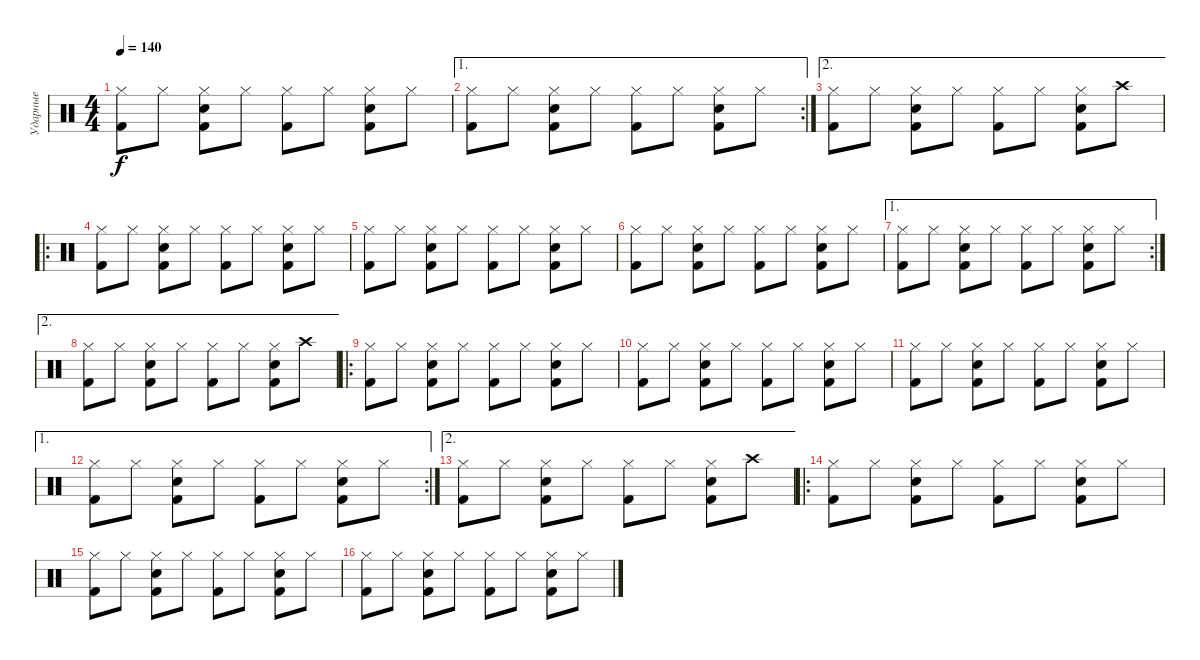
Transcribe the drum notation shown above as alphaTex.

\track ("Ударные" "Ударные") {instrument percussion}
\staff {score}
\articulation defaults
\ts (4 4)
\tempo 140
\clef neutral
\ks c
("Hi-Hat (closed)" "Kick (hit) 2").8{dy f} "Hi-Hat (closed)".8 ("Hi-Hat (closed)" "Kick (hit) 2" "Snare (hit) 2").8 "Hi-Hat (closed)".8 ("Hi-Hat (closed)" "Kick (hit) 2").8 "Hi-Hat (closed)".8 ("Hi-Hat (closed)" "Kick (hit) 2" "Snare (hit) 2").8 "Hi-Hat (closed)".8 |
\ae 1
\rc 2
("Hi-Hat (closed)" "Kick (hit) 2").8 "Hi-Hat (closed)".8 ("Hi-Hat (closed)" "Kick (hit) 2" "Snare (hit) 2").8 "Hi-Hat (closed)".8 ("Hi-Hat (closed)" "Kick (hit) 2").8 "Hi-Hat (closed)".8 ("Hi-Hat (closed)" "Kick (hit) 2" "Snare (hit) 2").8 "Hi-Hat (closed)".8 |
\ae 2
("Hi-Hat (closed)" "Kick (hit) 2").8 "Hi-Hat (closed)".8 ("Hi-Hat (closed)" "Kick (hit) 2" "Snare (hit) 2").8 "Hi-Hat (closed)".8 ("Hi-Hat (closed)" "Kick (hit) 2").8 "Hi-Hat (closed)".8 ("Hi-Hat (closed)" "Kick (hit) 2" "Snare (hit) 2").8 "Crash high (hit)".8 |
\ro
("Hi-Hat (closed)" "Kick (hit) 2").8 "Hi-Hat (closed)".8 ("Hi-Hat (closed)" "Kick (hit) 2" "Snare (hit) 2").8 "Hi-Hat (closed)".8 ("Hi-Hat (closed)" "Kick (hit) 2").8 "Hi-Hat (closed)".8 ("Hi-Hat (closed)" "Kick (hit) 2" "Snare (hit) 2").8 "Hi-Hat (closed)".8 |
("Hi-Hat (closed)" "Kick (hit) 2").8 "Hi-Hat (closed)".8 ("Hi-Hat (closed)" "Kick (hit) 2" "Snare (hit) 2").8 "Hi-Hat (closed)".8 ("Hi-Hat (closed)" "Kick (hit) 2").8 "Hi-Hat (closed)".8 ("Hi-Hat (closed)" "Kick (hit) 2" "Snare (hit) 2").8 "Hi-Hat (closed)".8 |
("Hi-Hat (closed)" "Kick (hit) 2").8 "Hi-Hat (closed)".8 ("Hi-Hat (closed)" "Kick (hit) 2" "Snare (hit) 2").8 "Hi-Hat (closed)".8 ("Hi-Hat (closed)" "Kick (hit) 2").8 "Hi-Hat (closed)".8 ("Hi-Hat (closed)" "Kick (hit) 2" "Snare (hit) 2").8 "Hi-Hat (closed)".8 |
\ae 1
\rc 2
("Hi-Hat (closed)" "Kick (hit) 2").8 "Hi-Hat (closed)".8 ("Hi-Hat (closed)" "Kick (hit) 2" "Snare (hit) 2").8 "Hi-Hat (closed)".8 ("Hi-Hat (closed)" "Kick (hit) 2").8 "Hi-Hat (closed)".8 ("Hi-Hat (closed)" "Kick (hit) 2" "Snare (hit) 2").8 "Hi-Hat (closed)".8 |
\ae 2
("Hi-Hat (closed)" "Kick (hit) 2").8 "Hi-Hat (closed)".8 ("Hi-Hat (closed)" "Kick (hit) 2" "Snare (hit) 2").8 "Hi-Hat (closed)".8 ("Hi-Hat (closed)" "Kick (hit) 2").8 "Hi-Hat (closed)".8 ("Hi-Hat (closed)" "Kick (hit) 2" "Snare (hit) 2").8 "Crash high (hit)".8 |
\ro
("Hi-Hat (closed)" "Kick (hit) 2").8 "Hi-Hat (closed)".8 ("Hi-Hat (closed)" "Kick (hit) 2" "Snare (hit) 2").8 "Hi-Hat (closed)".8 ("Hi-Hat (closed)" "Kick (hit) 2").8 "Hi-Hat (closed)".8 ("Hi-Hat (closed)" "Kick (hit) 2" "Snare (hit) 2").8 "Hi-Hat (closed)".8 |
("Hi-Hat (closed)" "Kick (hit) 2").8 "Hi-Hat (closed)".8 ("Hi-Hat (closed)" "Kick (hit) 2" "Snare (hit) 2").8 "Hi-Hat (closed)".8 ("Hi-Hat (closed)" "Kick (hit) 2").8 "Hi-Hat (closed)".8 ("Hi-Hat (closed)" "Kick (hit) 2" "Snare (hit) 2").8 "Hi-Hat (closed)".8 |
("Hi-Hat (closed)" "Kick (hit) 2").8 "Hi-Hat (closed)".8 ("Hi-Hat (closed)" "Kick (hit) 2" "Snare (hit) 2").8 "Hi-Hat (closed)".8 ("Hi-Hat (closed)" "Kick (hit) 2").8 "Hi-Hat (closed)".8 ("Hi-Hat (closed)" "Kick (hit) 2" "Snare (hit) 2").8 "Hi-Hat (closed)".8 |
\ae 1
\rc 2
("Hi-Hat (closed)" "Kick (hit) 2").8 "Hi-Hat (closed)".8 ("Hi-Hat (closed)" "Kick (hit) 2" "Snare (hit) 2").8 "Hi-Hat (closed)".8 ("Hi-Hat (closed)" "Kick (hit) 2").8 "Hi-Hat (closed)".8 ("Hi-Hat (closed)" "Kick (hit) 2" "Snare (hit) 2").8 "Hi-Hat (closed)".8 |
\ae 2
("Hi-Hat (closed)" "Kick (hit) 2").8 "Hi-Hat (closed)".8 ("Hi-Hat (closed)" "Kick (hit) 2" "Snare (hit) 2").8 "Hi-Hat (closed)".8 ("Hi-Hat (closed)" "Kick (hit) 2").8 "Hi-Hat (closed)".8 ("Hi-Hat (closed)" "Kick (hit) 2" "Snare (hit) 2").8 "Crash high (hit)".8 |
\ro
("Hi-Hat (closed)" "Kick (hit) 2").8 "Hi-Hat (closed)".8 ("Hi-Hat (closed)" "Kick (hit) 2" "Snare (hit) 2").8 "Hi-Hat (closed)".8 ("Hi-Hat (closed)" "Kick (hit) 2").8 "Hi-Hat (closed)".8 ("Hi-Hat (closed)" "Kick (hit) 2" "Snare (hit) 2").8 "Hi-Hat (closed)".8 |
("Hi-Hat (closed)" "Kick (hit) 2").8 "Hi-Hat (closed)".8 ("Hi-Hat (closed)" "Kick (hit) 2" "Snare (hit) 2").8 "Hi-Hat (closed)".8 ("Hi-Hat (closed)" "Kick (hit) 2").8 "Hi-Hat (closed)".8 ("Hi-Hat (closed)" "Kick (hit) 2" "Snare (hit) 2").8 "Hi-Hat (closed)".8 |
("Hi-Hat (closed)" "Kick (hit) 2").8 "Hi-Hat (closed)".8 ("Hi-Hat (closed)" "Kick (hit) 2" "Snare (hit) 2").8 "Hi-Hat (closed)".8 ("Hi-Hat (closed)" "Kick (hit) 2").8 "Hi-Hat (closed)".8 ("Hi-Hat (closed)" "Kick (hit) 2" "Snare (hit) 2").8 "Hi-Hat (closed)".8
